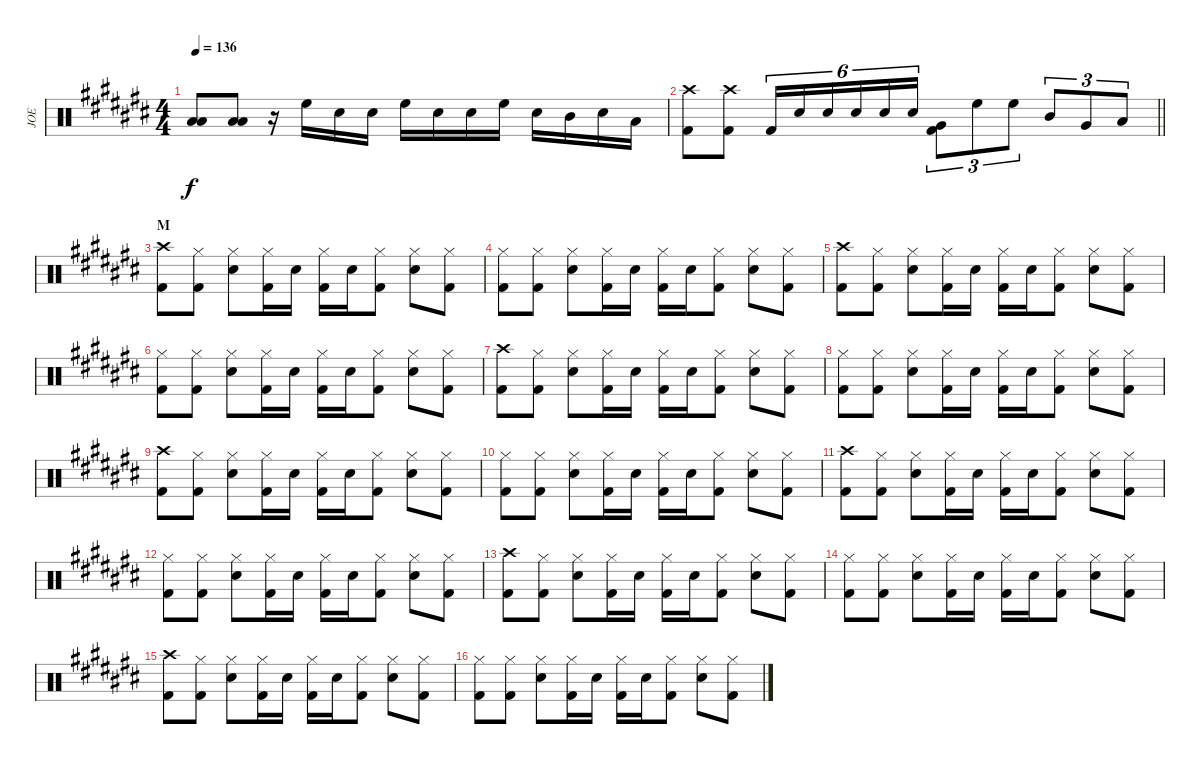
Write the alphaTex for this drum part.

\track ("JOE" "JOE") {instrument percussion}
\staff {score}
\articulation defaults
\ts (4 4)
\tempo 136
\clef neutral
\ks c#
("Low Tom (hit)" "Low Floor Tom (hit)").8{dy f} ("Low Tom (hit)" "Low Floor Tom (hit)").8 r.16 "High Floor Tom (hit)".16 "Snare (hit) 2".16 "Snare (hit) 2".16 "High Floor Tom (hit)".16 "Snare (hit) 2".16 "Snare (hit) 2".16 "High Floor Tom (hit)".16 "Snare (hit) 2".16 "Mid Tom (hit)".16 "Snare (hit) 2".16 "Low Tom (hit)".16 |
\barLineRight lightlight
("Crash high (hit)" "Kick (hit) 2").8 ("Crash high (hit)" "Kick (hit) 2").8 "Kick (hit) 2".16{tu (6 4)} "Snare (hit) 2".16{tu (6 4)} "Snare (hit) 2".16{tu (6 4)} "Snare (hit) 2".16{tu (6 4)} "Snare (hit) 2".16{tu (6 4)} "Snare (hit) 2".16{tu (6 4)} ("Very Low Tom (hit)" "Kick (hit) 2").8{tu (3 2)} "High Floor Tom (hit)".8{tu (3 2)} "High Floor Tom (hit)".8{tu (3 2)} "Mid Tom (hit)".8{tu (3 2)} "Very Low Tom (hit)".8{tu (3 2)} "Low Floor Tom (hit)".8{tu (3 2)} |
\section ("" "M")
("Crash high (hit)" "Kick (hit) 2").8 ("Hi-Hat (closed)" "Kick (hit) 2").8 ("Hi-Hat (closed)" "Snare (hit) 2").8 ("Hi-Hat (closed)" "Kick (hit) 2").16 "Snare (hit) 2".16 ("Hi-Hat (closed)" "Kick (hit) 2").16 "Snare (hit) 2".16 ("Hi-Hat (closed)" "Kick (hit) 2").8 ("Hi-Hat (closed)" "Snare (hit) 2").8 ("Hi-Hat (closed)" "Kick (hit) 2").8 |
("Hi-Hat (closed)" "Kick (hit) 2").8 ("Hi-Hat (closed)" "Kick (hit) 2").8 ("Hi-Hat (closed)" "Snare (hit) 2").8 ("Hi-Hat (closed)" "Kick (hit) 2").16 "Snare (hit) 2".16 ("Hi-Hat (closed)" "Kick (hit) 2").16 "Snare (hit) 2".16 ("Hi-Hat (closed)" "Kick (hit) 2").8 ("Hi-Hat (closed)" "Snare (hit) 2").8 ("Hi-Hat (closed)" "Kick (hit) 2").8 |
("Crash high (hit)" "Kick (hit) 2").8 ("Hi-Hat (closed)" "Kick (hit) 2").8 ("Hi-Hat (closed)" "Snare (hit) 2").8 ("Hi-Hat (closed)" "Kick (hit) 2").16 "Snare (hit) 2".16 ("Hi-Hat (closed)" "Kick (hit) 2").16 "Snare (hit) 2".16 ("Hi-Hat (closed)" "Kick (hit) 2").8 ("Hi-Hat (closed)" "Snare (hit) 2").8 ("Hi-Hat (closed)" "Kick (hit) 2").8 |
("Hi-Hat (closed)" "Kick (hit) 2").8 ("Hi-Hat (closed)" "Kick (hit) 2").8 ("Hi-Hat (closed)" "Snare (hit) 2").8 ("Hi-Hat (closed)" "Kick (hit) 2").16 "Snare (hit) 2".16 ("Hi-Hat (closed)" "Kick (hit) 2").16 "Snare (hit) 2".16 ("Hi-Hat (closed)" "Kick (hit) 2").8 ("Hi-Hat (closed)" "Snare (hit) 2").8 ("Hi-Hat (closed)" "Kick (hit) 2").8 |
("Crash high (hit)" "Kick (hit) 2").8 ("Hi-Hat (closed)" "Kick (hit) 2").8 ("Hi-Hat (closed)" "Snare (hit) 2").8 ("Hi-Hat (closed)" "Kick (hit) 2").16 "Snare (hit) 2".16 ("Hi-Hat (closed)" "Kick (hit) 2").16 "Snare (hit) 2".16 ("Hi-Hat (closed)" "Kick (hit) 2").8 ("Hi-Hat (closed)" "Snare (hit) 2").8 ("Hi-Hat (closed)" "Kick (hit) 2").8 |
("Hi-Hat (closed)" "Kick (hit) 2").8 ("Hi-Hat (closed)" "Kick (hit) 2").8 ("Hi-Hat (closed)" "Snare (hit) 2").8 ("Hi-Hat (closed)" "Kick (hit) 2").16 "Snare (hit) 2".16 ("Hi-Hat (closed)" "Kick (hit) 2").16 "Snare (hit) 2".16 ("Hi-Hat (closed)" "Kick (hit) 2").8 ("Hi-Hat (closed)" "Snare (hit) 2").8 ("Hi-Hat (closed)" "Kick (hit) 2").8 |
("Crash high (hit)" "Kick (hit) 2").8 ("Hi-Hat (closed)" "Kick (hit) 2").8 ("Hi-Hat (closed)" "Snare (hit) 2").8 ("Hi-Hat (closed)" "Kick (hit) 2").16 "Snare (hit) 2".16 ("Hi-Hat (closed)" "Kick (hit) 2").16 "Snare (hit) 2".16 ("Hi-Hat (closed)" "Kick (hit) 2").8 ("Hi-Hat (closed)" "Snare (hit) 2").8 ("Hi-Hat (closed)" "Kick (hit) 2").8 |
("Hi-Hat (closed)" "Kick (hit) 2").8 ("Hi-Hat (closed)" "Kick (hit) 2").8 ("Hi-Hat (closed)" "Snare (hit) 2").8 ("Hi-Hat (closed)" "Kick (hit) 2").16 "Snare (hit) 2".16 ("Hi-Hat (closed)" "Kick (hit) 2").16 "Snare (hit) 2".16 ("Hi-Hat (closed)" "Kick (hit) 2").8 ("Hi-Hat (closed)" "Snare (hit) 2").8 ("Hi-Hat (closed)" "Kick (hit) 2").8 |
("Crash high (hit)" "Kick (hit) 2").8 ("Hi-Hat (closed)" "Kick (hit) 2").8 ("Hi-Hat (closed)" "Snare (hit) 2").8 ("Hi-Hat (closed)" "Kick (hit) 2").16 "Snare (hit) 2".16 ("Hi-Hat (closed)" "Kick (hit) 2").16 "Snare (hit) 2".16 ("Hi-Hat (closed)" "Kick (hit) 2").8 ("Hi-Hat (closed)" "Snare (hit) 2").8 ("Hi-Hat (closed)" "Kick (hit) 2").8 |
("Hi-Hat (closed)" "Kick (hit) 2").8 ("Hi-Hat (closed)" "Kick (hit) 2").8 ("Hi-Hat (closed)" "Snare (hit) 2").8 ("Hi-Hat (closed)" "Kick (hit) 2").16 "Snare (hit) 2".16 ("Hi-Hat (closed)" "Kick (hit) 2").16 "Snare (hit) 2".16 ("Hi-Hat (closed)" "Kick (hit) 2").8 ("Hi-Hat (closed)" "Snare (hit) 2").8 ("Hi-Hat (closed)" "Kick (hit) 2").8 |
("Crash high (hit)" "Kick (hit) 2").8 ("Hi-Hat (closed)" "Kick (hit) 2").8 ("Hi-Hat (closed)" "Snare (hit) 2").8 ("Hi-Hat (closed)" "Kick (hit) 2").16 "Snare (hit) 2".16 ("Hi-Hat (closed)" "Kick (hit) 2").16 "Snare (hit) 2".16 ("Hi-Hat (closed)" "Kick (hit) 2").8 ("Hi-Hat (closed)" "Snare (hit) 2").8 ("Hi-Hat (closed)" "Kick (hit) 2").8 |
("Hi-Hat (closed)" "Kick (hit) 2").8 ("Hi-Hat (closed)" "Kick (hit) 2").8 ("Hi-Hat (closed)" "Snare (hit) 2").8 ("Hi-Hat (closed)" "Kick (hit) 2").16 "Snare (hit) 2".16 ("Hi-Hat (closed)" "Kick (hit) 2").16 "Snare (hit) 2".16 ("Hi-Hat (closed)" "Kick (hit) 2").8 ("Hi-Hat (closed)" "Snare (hit) 2").8 ("Hi-Hat (closed)" "Kick (hit) 2").8 |
("Crash high (hit)" "Kick (hit) 2").8 ("Hi-Hat (closed)" "Kick (hit) 2").8 ("Hi-Hat (closed)" "Snare (hit) 2").8 ("Hi-Hat (closed)" "Kick (hit) 2").16 "Snare (hit) 2".16 ("Hi-Hat (closed)" "Kick (hit) 2").16 "Snare (hit) 2".16 ("Hi-Hat (closed)" "Kick (hit) 2").8 ("Hi-Hat (closed)" "Snare (hit) 2").8 ("Hi-Hat (closed)" "Kick (hit) 2").8 |
("Hi-Hat (closed)" "Kick (hit) 2").8 ("Hi-Hat (closed)" "Kick (hit) 2").8 ("Hi-Hat (closed)" "Snare (hit) 2").8 ("Hi-Hat (closed)" "Kick (hit) 2").16 "Snare (hit) 2".16 ("Hi-Hat (closed)" "Kick (hit) 2").16 "Snare (hit) 2".16 ("Hi-Hat (closed)" "Kick (hit) 2").8 ("Hi-Hat (closed)" "Snare (hit) 2").8 ("Hi-Hat (closed)" "Kick (hit) 2").8
